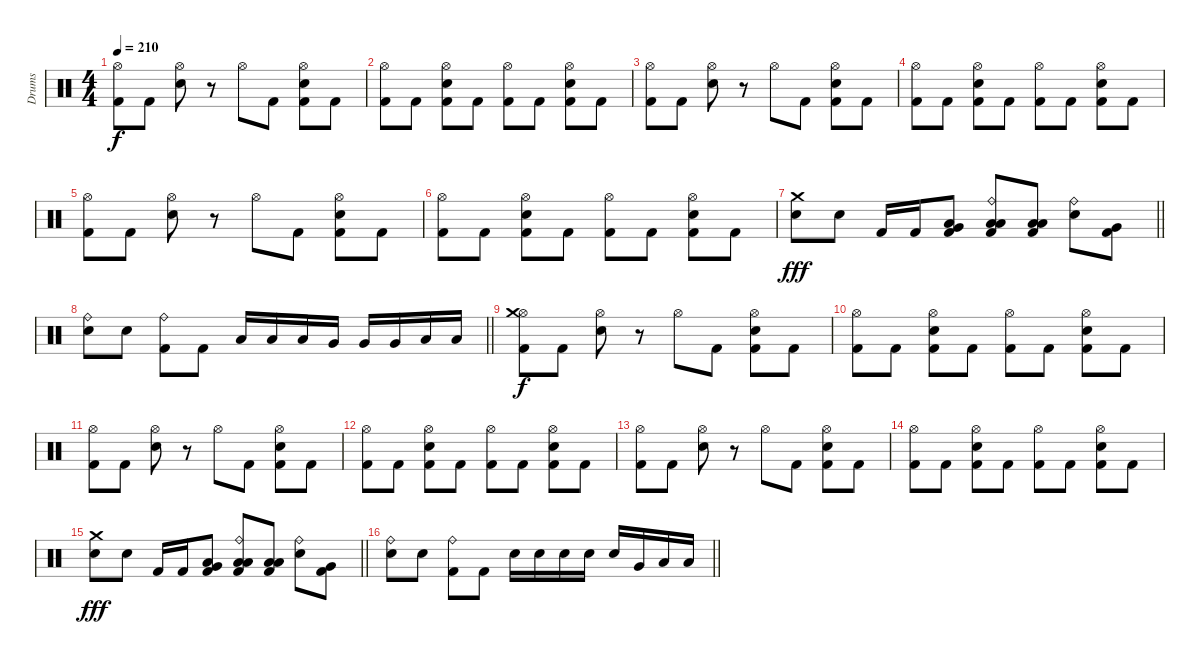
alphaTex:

\track ("Drums" "Drums") {instrument percussion}
\staff {score}
\articulation defaults
\ts (4 4)
\tempo 210
\clef neutral
\ks c
("Hi-Hat (open)" "Kick (hit) 2").8{dy f} "Kick (hit) 2".8 ("Hi-Hat (open)" "Electric Snare (hit)").8 r.8 "Hi-Hat (open)".8 "Kick (hit) 2".8 ("Hi-Hat (open)" "Electric Snare (hit)" "Kick (hit) 2").8 "Kick (hit) 2".8 |
("Hi-Hat (open)" "Kick (hit) 2").8 "Kick (hit) 2".8 ("Hi-Hat (open)" "Electric Snare (hit)" "Kick (hit) 2").8 "Kick (hit) 2".8 ("Hi-Hat (open)" "Kick (hit) 2").8 "Kick (hit) 2".8 ("Hi-Hat (open)" "Electric Snare (hit)" "Kick (hit) 2").8 "Kick (hit) 2".8 |
("Hi-Hat (open)" "Kick (hit) 2").8 "Kick (hit) 2".8 ("Hi-Hat (open)" "Electric Snare (hit)").8 r.8 "Hi-Hat (open)".8 "Kick (hit) 2".8 ("Hi-Hat (open)" "Electric Snare (hit)" "Kick (hit) 2").8 "Kick (hit) 2".8 |
("Hi-Hat (open)" "Kick (hit) 2").8 "Kick (hit) 2".8 ("Hi-Hat (open)" "Electric Snare (hit)" "Kick (hit) 2").8 "Kick (hit) 2".8 ("Hi-Hat (open)" "Kick (hit) 2").8 "Kick (hit) 2".8 ("Hi-Hat (open)" "Electric Snare (hit)" "Kick (hit) 2").8 "Kick (hit) 2".8 |
("Hi-Hat (open)" "Kick (hit) 2").8 "Kick (hit) 2".8 ("Hi-Hat (open)" "Electric Snare (hit)").8 r.8 "Hi-Hat (open)".8 "Kick (hit) 2".8 ("Hi-Hat (open)" "Electric Snare (hit)" "Kick (hit) 2").8 "Kick (hit) 2".8 |
("Hi-Hat (open)" "Kick (hit) 2").8 "Kick (hit) 2".8 ("Hi-Hat (open)" "Electric Snare (hit)" "Kick (hit) 2").8 "Kick (hit) 2".8 ("Hi-Hat (open)" "Kick (hit) 2").8 "Kick (hit) 2".8 ("Hi-Hat (open)" "Electric Snare (hit)" "Kick (hit) 2").8 "Kick (hit) 2".8 |
\barLineRight lightlight
("Crash medium (hit)" "Electric Snare (hit)").8{dy fff} "Electric Snare (hit)".8 "Kick (hit) 2".16 "Kick (hit) 2".16 ("Very Low Tom (hit)" "Low Floor Tom (hit)" "Kick (hit) 2").8 ("Ride (bell)" "Low Tom (hit)" "Low Floor Tom (hit)" "Kick (hit) 2").8 ("Low Floor Tom (hit)" "Low Floor Tom (hit)" "Kick (hit) 2").8 ("Ride (bell)" "Electric Snare (hit)").8 ("Very Low Tom (hit)" "Kick (hit) 2").8 |
\barLineRight lightlight
("Ride (bell)" "Electric Snare (hit)").8 "Electric Snare (hit)".8 ("Ride (bell)" "Kick (hit) 2").8 "Kick (hit) 2".8 "Low Tom (hit)".16 "Low Tom (hit)".16 "Low Tom (hit)".16 "Very Low Tom (hit)".16 "Very Low Tom (hit)".16 "Very Low Tom (hit)".16 "Low Floor Tom (hit)".16 "Low Floor Tom (hit)".16 |
("Hi-Hat (open)" "Crash medium (hit)" "Kick (hit) 2").8{dy f} "Kick (hit) 2".8 ("Hi-Hat (open)" "Electric Snare (hit)").8 r.8 "Hi-Hat (open)".8 "Kick (hit) 2".8 ("Hi-Hat (open)" "Electric Snare (hit)" "Kick (hit) 2").8 "Kick (hit) 2".8 |
("Hi-Hat (open)" "Kick (hit) 2").8 "Kick (hit) 2".8 ("Hi-Hat (open)" "Electric Snare (hit)" "Kick (hit) 2").8 "Kick (hit) 2".8 ("Hi-Hat (open)" "Kick (hit) 2").8 "Kick (hit) 2".8 ("Hi-Hat (open)" "Electric Snare (hit)" "Kick (hit) 2").8 "Kick (hit) 2".8 |
("Hi-Hat (open)" "Kick (hit) 2").8 "Kick (hit) 2".8 ("Hi-Hat (open)" "Electric Snare (hit)").8 r.8 "Hi-Hat (open)".8 "Kick (hit) 2".8 ("Hi-Hat (open)" "Electric Snare (hit)" "Kick (hit) 2").8 "Kick (hit) 2".8 |
("Hi-Hat (open)" "Kick (hit) 2").8 "Kick (hit) 2".8 ("Hi-Hat (open)" "Electric Snare (hit)" "Kick (hit) 2").8 "Kick (hit) 2".8 ("Hi-Hat (open)" "Kick (hit) 2").8 "Kick (hit) 2".8 ("Hi-Hat (open)" "Electric Snare (hit)" "Kick (hit) 2").8 "Kick (hit) 2".8 |
("Hi-Hat (open)" "Kick (hit) 2").8 "Kick (hit) 2".8 ("Hi-Hat (open)" "Electric Snare (hit)").8 r.8 "Hi-Hat (open)".8 "Kick (hit) 2".8 ("Hi-Hat (open)" "Electric Snare (hit)" "Kick (hit) 2").8 "Kick (hit) 2".8 |
("Hi-Hat (open)" "Kick (hit) 2").8 "Kick (hit) 2".8 ("Hi-Hat (open)" "Electric Snare (hit)" "Kick (hit) 2").8 "Kick (hit) 2".8 ("Hi-Hat (open)" "Kick (hit) 2").8 "Kick (hit) 2".8 ("Hi-Hat (open)" "Electric Snare (hit)" "Kick (hit) 2").8 "Kick (hit) 2".8 |
\barLineRight lightlight
("Crash medium (hit)" "Electric Snare (hit)").8{dy fff} "Electric Snare (hit)".8 "Kick (hit) 2".16 "Kick (hit) 2".16 ("Very Low Tom (hit)" "Low Floor Tom (hit)" "Kick (hit) 2").8 ("Ride (bell)" "Low Tom (hit)" "Low Floor Tom (hit)" "Kick (hit) 2").8 ("Low Floor Tom (hit)" "Low Floor Tom (hit)" "Kick (hit) 2").8 ("Ride (bell)" "Electric Snare (hit)").8 ("Very Low Tom (hit)" "Kick (hit) 2").8 |
\barLineRight lightlight
("Ride (bell)" "Electric Snare (hit)").8 "Electric Snare (hit)".8 ("Ride (bell)" "Kick (hit) 2").8 "Kick (hit) 2".8 "Electric Snare (hit)".16 "Electric Snare (hit)".16 "Electric Snare (hit)".16 "Electric Snare (hit)".16 "Electric Snare (hit)".16 "Very Low Tom (hit)".16 "Low Floor Tom (hit)".16 "Low Floor Tom (hit)".16
